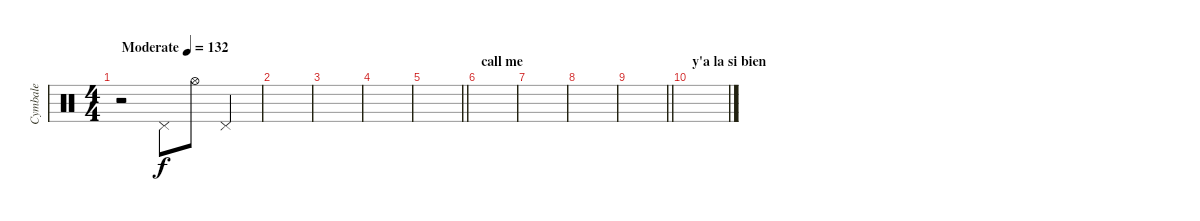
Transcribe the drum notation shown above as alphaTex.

\track ("Cymbale" "Cymbale") {instrument percussion}
\staff {score}
\articulation defaults
\ts (4 4)
\tempo (132 "Moderate")
\clef neutral
\ks c
r.2{dy f} "Pedal Hi-Hat (hit)".8 "Hi-Hat (open)".8 "Pedal Hi-Hat (hit)".4 |
|
|
|
\barLineRight lightlight
|
\section ("" "call me")
|
|
|
\barLineRight lightlight
|
\section ("" "y'a la si bien")
